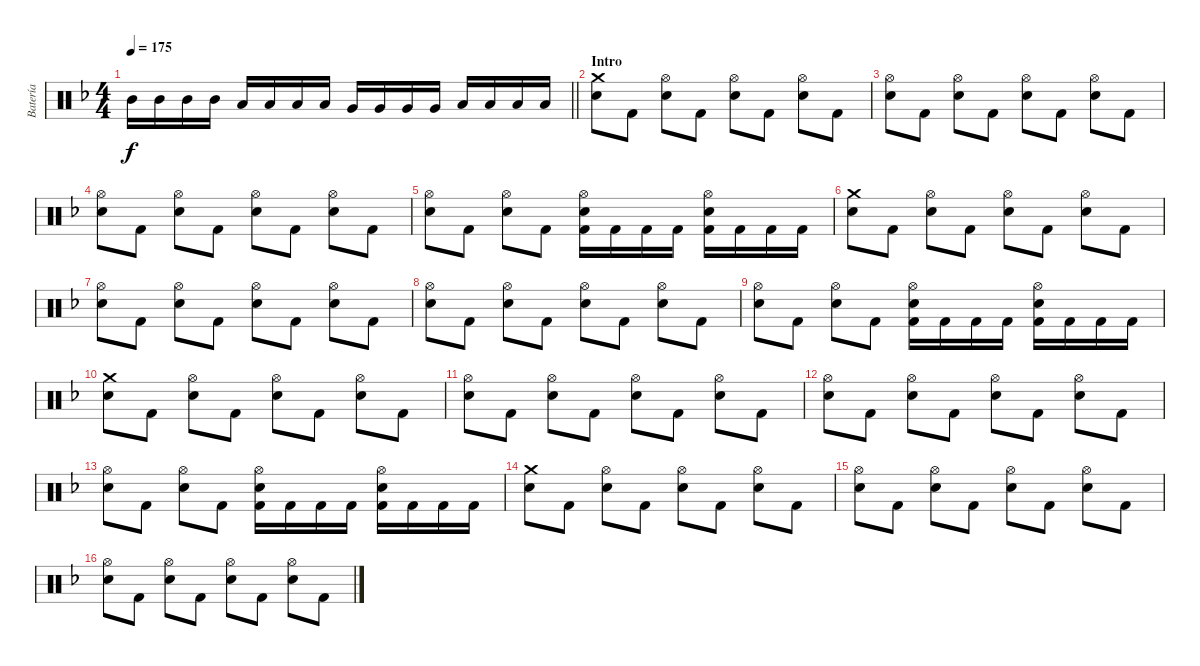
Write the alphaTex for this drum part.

\track ("Batería" "Batería") {instrument percussion}
\staff {score}
\articulation defaults
\ts (4 4)
\tempo 175
\clef neutral
\barLineRight lightlight
\ks dminor "Mid Tom (hit)".16{dy f} "Mid Tom (hit)".16 "Mid Tom (hit)".16 "Mid Tom (hit)".16 "Low Tom (hit)".16 "Low Tom (hit)".16 "Low Tom (hit)".16 "Low Tom (hit)".16 "Very Low Tom (hit)".16 "Very Low Tom (hit)".16 "Very Low Tom (hit)".16 "Very Low Tom (hit)".16 "Low Floor Tom (hit)".16 "Low Floor Tom (hit)".16 "Low Floor Tom (hit)".16 "Low Floor Tom (hit)".16
|
\section ("" "Intro")
("Crash medium (hit)" "Snare (hit) 2").8 "Kick (hit) 2".8 ("Hi-Hat (open)" "Snare (hit) 2").8 "Kick (hit) 2".8 ("Hi-Hat (open)" "Snare (hit) 2").8 "Kick (hit) 2".8 ("Hi-Hat (open)" "Snare (hit) 2").8 "Kick (hit) 2".8 |
("Hi-Hat (open)" "Snare (hit) 2").8 "Kick (hit) 2".8 ("Hi-Hat (open)" "Snare (hit) 2").8 "Kick (hit) 2".8 ("Hi-Hat (open)" "Snare (hit) 2").8 "Kick (hit) 2".8 ("Hi-Hat (open)" "Snare (hit) 2").8 "Kick (hit) 2".8 |
("Hi-Hat (open)" "Snare (hit) 2").8 "Kick (hit) 2".8 ("Hi-Hat (open)" "Snare (hit) 2").8 "Kick (hit) 2".8 ("Hi-Hat (open)" "Snare (hit) 2").8 "Kick (hit) 2".8 ("Hi-Hat (open)" "Snare (hit) 2").8 "Kick (hit) 2".8 |
("Hi-Hat (open)" "Snare (hit) 2").8 "Kick (hit) 2".8 ("Hi-Hat (open)" "Snare (hit) 2").8 "Kick (hit) 2".8 ("Hi-Hat (open)" "Snare (hit) 2" "Kick (hit) 2").16 "Kick (hit) 2".16 "Kick (hit) 2".16 "Kick (hit) 2".16 ("Hi-Hat (open)" "Snare (hit) 2" "Kick (hit) 2").16 "Kick (hit) 2".16 "Kick (hit) 2".16 "Kick (hit) 2".16 |
("Crash medium (hit)" "Snare (hit) 2").8 "Kick (hit) 2".8 ("Hi-Hat (open)" "Snare (hit) 2").8 "Kick (hit) 2".8 ("Hi-Hat (open)" "Snare (hit) 2").8 "Kick (hit) 2".8 ("Hi-Hat (open)" "Snare (hit) 2").8 "Kick (hit) 2".8 |
("Hi-Hat (open)" "Snare (hit) 2").8 "Kick (hit) 2".8 ("Hi-Hat (open)" "Snare (hit) 2").8 "Kick (hit) 2".8 ("Hi-Hat (open)" "Snare (hit) 2").8 "Kick (hit) 2".8 ("Hi-Hat (open)" "Snare (hit) 2").8 "Kick (hit) 2".8 |
("Hi-Hat (open)" "Snare (hit) 2").8 "Kick (hit) 2".8 ("Hi-Hat (open)" "Snare (hit) 2").8 "Kick (hit) 2".8 ("Hi-Hat (open)" "Snare (hit) 2").8 "Kick (hit) 2".8 ("Hi-Hat (open)" "Snare (hit) 2").8 "Kick (hit) 2".8 |
("Hi-Hat (open)" "Snare (hit) 2").8 "Kick (hit) 2".8 ("Hi-Hat (open)" "Snare (hit) 2").8 "Kick (hit) 2".8 ("Hi-Hat (open)" "Snare (hit) 2" "Kick (hit) 2").16 "Kick (hit) 2".16 "Kick (hit) 2".16 "Kick (hit) 2".16 ("Hi-Hat (open)" "Snare (hit) 2" "Kick (hit) 2").16 "Kick (hit) 2".16 "Kick (hit) 2".16 "Kick (hit) 2".16 |
("Crash medium (hit)" "Snare (hit) 2").8 "Kick (hit) 2".8 ("Hi-Hat (open)" "Snare (hit) 2").8 "Kick (hit) 2".8 ("Hi-Hat (open)" "Snare (hit) 2").8 "Kick (hit) 2".8 ("Hi-Hat (open)" "Snare (hit) 2").8 "Kick (hit) 2".8 |
("Hi-Hat (open)" "Snare (hit) 2").8 "Kick (hit) 2".8 ("Hi-Hat (open)" "Snare (hit) 2").8 "Kick (hit) 2".8 ("Hi-Hat (open)" "Snare (hit) 2").8 "Kick (hit) 2".8 ("Hi-Hat (open)" "Snare (hit) 2").8 "Kick (hit) 2".8 |
("Hi-Hat (open)" "Snare (hit) 2").8 "Kick (hit) 2".8 ("Hi-Hat (open)" "Snare (hit) 2").8 "Kick (hit) 2".8 ("Hi-Hat (open)" "Snare (hit) 2").8 "Kick (hit) 2".8 ("Hi-Hat (open)" "Snare (hit) 2").8 "Kick (hit) 2".8 |
("Hi-Hat (open)" "Snare (hit) 2").8 "Kick (hit) 2".8 ("Hi-Hat (open)" "Snare (hit) 2").8 "Kick (hit) 2".8 ("Hi-Hat (open)" "Snare (hit) 2" "Kick (hit) 2").16 "Kick (hit) 2".16 "Kick (hit) 2".16 "Kick (hit) 2".16 ("Hi-Hat (open)" "Snare (hit) 2" "Kick (hit) 2").16 "Kick (hit) 2".16 "Kick (hit) 2".16 "Kick (hit) 2".16 |
("Crash medium (hit)" "Snare (hit) 2").8 "Kick (hit) 2".8 ("Hi-Hat (open)" "Snare (hit) 2").8 "Kick (hit) 2".8 ("Hi-Hat (open)" "Snare (hit) 2").8 "Kick (hit) 2".8 ("Hi-Hat (open)" "Snare (hit) 2").8 "Kick (hit) 2".8 |
("Hi-Hat (open)" "Snare (hit) 2").8 "Kick (hit) 2".8 ("Hi-Hat (open)" "Snare (hit) 2").8 "Kick (hit) 2".8 ("Hi-Hat (open)" "Snare (hit) 2").8 "Kick (hit) 2".8 ("Hi-Hat (open)" "Snare (hit) 2").8 "Kick (hit) 2".8 |
("Hi-Hat (open)" "Snare (hit) 2").8 "Kick (hit) 2".8 ("Hi-Hat (open)" "Snare (hit) 2").8 "Kick (hit) 2".8 ("Hi-Hat (open)" "Snare (hit) 2").8 "Kick (hit) 2".8 ("Hi-Hat (open)" "Snare (hit) 2").8 "Kick (hit) 2".8
